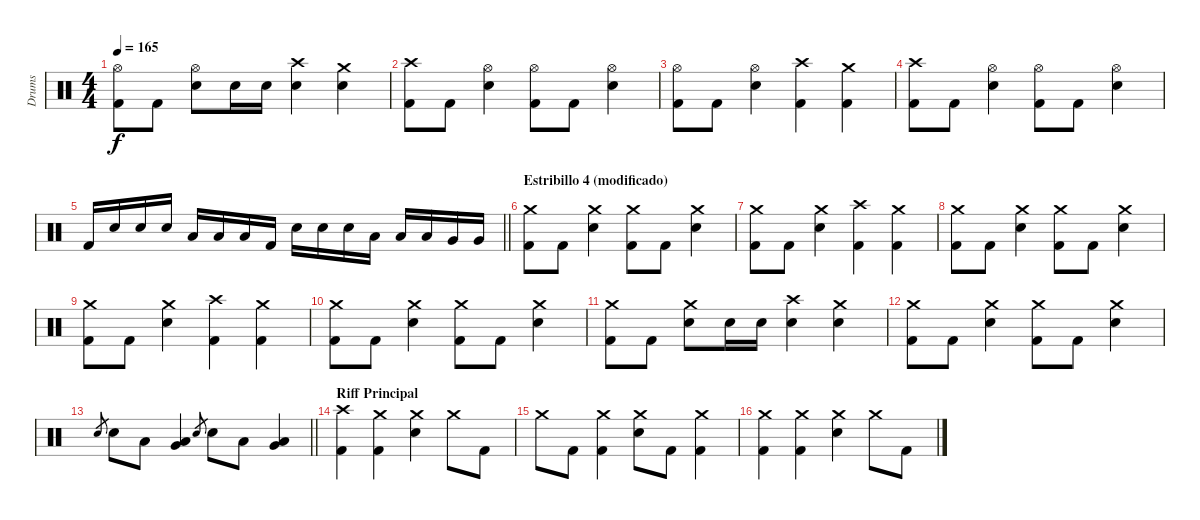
\track ("Drums" "Drums") {instrument percussion}
\staff {score}
\articulation defaults
\ts (4 4)
\tempo 165
\clef neutral
\ks c
("Hi-Hat (open)" "Kick (hit) 2").8{dy f} "Kick (hit) 2".8 ("Hi-Hat (open)" "Electric Snare (hit)").8 "Electric Snare (hit)".16 "Electric Snare (hit)".16 ("Crash high (hit)" "Electric Snare (hit)").4 ("Crash medium (hit)" "Electric Snare (hit)").4 |
("Crash high (hit)" "Kick (hit) 2").8 "Kick (hit) 2".8 ("Hi-Hat (open)" "Electric Snare (hit)").4 ("Hi-Hat (open)" "Kick (hit) 2").8 "Kick (hit) 2".8 ("Hi-Hat (open)" "Electric Snare (hit)").4 |
("Hi-Hat (open)" "Kick (hit) 2").8 "Kick (hit) 2".8 ("Hi-Hat (open)" "Electric Snare (hit)").4 ("Crash high (hit)" "Kick (hit) 2").4 ("Crash medium (hit)" "Kick (hit) 2").4 |
("Crash high (hit)" "Kick (hit) 2").8 "Kick (hit) 2".8 ("Hi-Hat (open)" "Electric Snare (hit)").4 ("Hi-Hat (open)" "Kick (hit) 2").8 "Kick (hit) 2".8 ("Hi-Hat (open)" "Electric Snare (hit)").4 |
\barLineRight lightlight "Kick (hit) 2".16 "Electric Snare (hit)".16 "Electric Snare (hit)".16 "Electric Snare (hit)".16 "Low Tom (hit)".16 "Low Tom (hit)".16 "Low Tom (hit)".16 "Kick (hit) 2".16 "Electric Snare (hit)".16 "Electric Snare (hit)".16 "Electric Snare (hit)".16 "Low Tom (hit)".16 "Low Tom (hit)".16 "Low Tom (hit)".16 "Very Low Tom (hit)".16 "Very Low Tom (hit)".16
|
\section ("" "Estribillo 4 (modificado)")
("Crash medium (hit)" "Kick (hit) 2").8 "Kick (hit) 2".8 ("Crash medium (hit)" "Electric Snare (hit)").4 ("Crash medium (hit)" "Kick (hit) 2").8 "Kick (hit) 2".8 ("Crash medium (hit)" "Electric Snare (hit)").4 |
("Crash medium (hit)" "Kick (hit) 2").8 "Kick (hit) 2".8 ("Crash medium (hit)" "Electric Snare (hit)").4 ("Crash high (hit)" "Kick (hit) 2").4 ("Crash medium (hit)" "Kick (hit) 2").4 |
("Crash medium (hit)" "Kick (hit) 2").8 "Kick (hit) 2".8 ("Crash medium (hit)" "Electric Snare (hit)").4 ("Crash medium (hit)" "Kick (hit) 2").8 "Kick (hit) 2".8 ("Crash medium (hit)" "Electric Snare (hit)").4 |
("Crash medium (hit)" "Kick (hit) 2").8 "Kick (hit) 2".8 ("Crash medium (hit)" "Electric Snare (hit)").4 ("Crash high (hit)" "Kick (hit) 2").4 ("Crash medium (hit)" "Kick (hit) 2").4 |
("Crash medium (hit)" "Kick (hit) 2").8 "Kick (hit) 2".8 ("Crash medium (hit)" "Electric Snare (hit)").4 ("Crash medium (hit)" "Kick (hit) 2").8 "Kick (hit) 2".8 ("Crash medium (hit)" "Electric Snare (hit)").4 |
("Crash medium (hit)" "Kick (hit) 2").8 "Kick (hit) 2".8 ("Crash medium (hit)" "Electric Snare (hit)").8 "Electric Snare (hit)".16 "Electric Snare (hit)".16 ("Crash high (hit)" "Electric Snare (hit)").4 ("Crash medium (hit)" "Electric Snare (hit)").4 |
("Crash medium (hit)" "Kick (hit) 2").8 "Kick (hit) 2".8 ("Crash medium (hit)" "Electric Snare (hit)").4 ("Crash medium (hit)" "Kick (hit) 2").8 "Kick (hit) 2".8 ("Crash medium (hit)" "Electric Snare (hit)").4 |
\barLineRight lightlight "Electric Snare (hit)".8{gr} "Electric Snare (hit)".8 "Low Tom (hit)".8
("Low Floor Tom (hit)" "Very Low Tom (hit)").4 "Electric Snare (hit)".8{gr} "Electric Snare (hit)".8 "Low Tom (hit)".8 ("Low Floor Tom (hit)" "Very Low Tom (hit)").4 |
\section ("" "Riff Principal")
("Crash high (hit)" "Kick (hit) 2").4 ("Crash medium (hit)" "Kick (hit) 2").4 ("Crash medium (hit)" "Electric Snare (hit)").4 "Crash medium (hit)".8 "Kick (hit) 2".8 |
"Crash medium (hit)".8 "Kick (hit) 2".8 ("Crash medium (hit)" "Kick (hit) 2").4 ("Crash medium (hit)" "Electric Snare (hit)").8 "Kick (hit) 2".8 ("Crash medium (hit)" "Kick (hit) 2").4 |
("Crash medium (hit)" "Kick (hit) 2").4 ("Crash medium (hit)" "Kick (hit) 2").4 ("Crash medium (hit)" "Electric Snare (hit)").4 "Crash medium (hit)".8 "Kick (hit) 2".8
